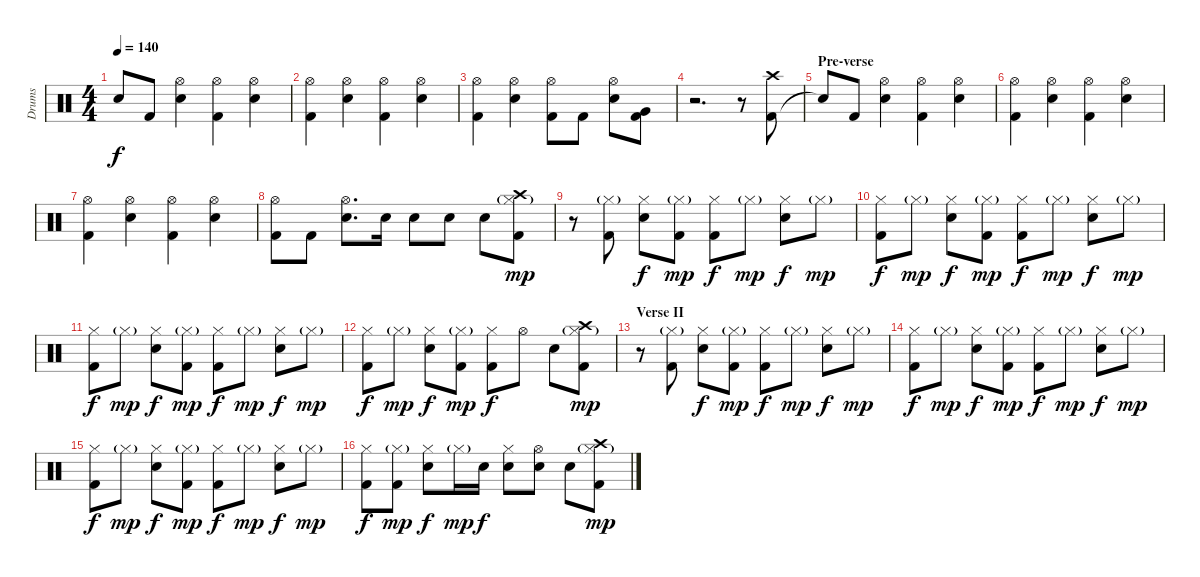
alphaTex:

\track ("Drums" "Drums") {instrument percussion}
\staff {score}
\articulation defaults
\ts (4 4)
\tempo 140
\clef neutral
\ks c "Snare (hit)"{t}.8{dy f} "Kick (hit) 2".8
("Hi-Hat (open)" "Electric Snare (hit)").4 ("Hi-Hat (open)" "Kick (hit) 2").4 ("Hi-Hat (open)" "Electric Snare (hit)").4 |
("Hi-Hat (open)" "Kick (hit) 2").4 ("Hi-Hat (open)" "Electric Snare (hit)").4 ("Hi-Hat (open)" "Kick (hit) 2").4 ("Hi-Hat (open)" "Electric Snare (hit)").4 |
("Hi-Hat (open)" "Kick (hit) 2").4 ("Hi-Hat (open)" "Electric Snare (hit)").4 ("Hi-Hat (open)" "Kick (hit) 2").8 "Kick (hit) 2".8 ("Hi-Hat (open)" "Electric Snare (hit)").8 ("Very Low Tom (hit)" "Kick (hit) 2").8 |
r.2{d} r.8 ("Kick (hit) 2" "Crash high (hit)").8 |
\section ("" "Pre-verse")
"Snare (hit)"{t}.8 "Kick (hit) 2".8 ("Hi-Hat (open)" "Electric Snare (hit)").4 ("Hi-Hat (open)" "Kick (hit) 2").4 ("Hi-Hat (open)" "Electric Snare (hit)").4 |
("Hi-Hat (open)" "Kick (hit) 2").4 ("Hi-Hat (open)" "Electric Snare (hit)").4 ("Hi-Hat (open)" "Kick (hit) 2").4 ("Hi-Hat (open)" "Electric Snare (hit)").4 |
("Hi-Hat (open)" "Kick (hit) 2").4 ("Hi-Hat (open)" "Electric Snare (hit)").4 ("Hi-Hat (open)" "Kick (hit) 2").4 ("Hi-Hat (open)" "Electric Snare (hit)").4 |
("Hi-Hat (open)" "Kick (hit) 2").8 "Kick (hit) 2".8 ("Hi-Hat (open)" "Electric Snare (hit)").8{d} "Electric Snare (hit)".16 "Electric Snare (hit)".8 "Electric Snare (hit)".8 "Electric Snare (hit)".8 ("Hi-Hat (closed)"{g} "Kick (hit) 2" "Crash high (hit)").8{dy mp} |
r.8 ("Hi-Hat (closed)"{g} "Kick (hit) 2").8 ("Hi-Hat (closed)" "Electric Snare (hit)").8{dy f} ("Hi-Hat (closed)"{g} "Kick (hit) 2").8{dy mp} ("Hi-Hat (closed)" "Kick (hit) 2").8{dy f} "Hi-Hat (closed)"{g}.8{dy mp} ("Hi-Hat (closed)" "Electric Snare (hit)").8{dy f} "Hi-Hat (closed)"{g}.8{dy mp} |
("Hi-Hat (closed)" "Kick (hit) 2").8{dy f} "Hi-Hat (closed)"{g}.8{dy mp} ("Hi-Hat (closed)" "Electric Snare (hit)").8{dy f} ("Hi-Hat (closed)"{g} "Kick (hit) 2").8{dy mp} ("Hi-Hat (closed)" "Kick (hit) 2").8{dy f} "Hi-Hat (closed)"{g}.8{dy mp} ("Hi-Hat (closed)" "Electric Snare (hit)").8{dy f} "Hi-Hat (closed)"{g}.8{dy mp} |
("Hi-Hat (closed)" "Kick (hit) 2").8{dy f} "Hi-Hat (closed)"{g}.8{dy mp} ("Hi-Hat (closed)" "Electric Snare (hit)").8{dy f} ("Hi-Hat (closed)"{g} "Kick (hit) 2").8{dy mp} ("Hi-Hat (closed)" "Kick (hit) 2").8{dy f} "Hi-Hat (closed)"{g}.8{dy mp} ("Hi-Hat (closed)" "Electric Snare (hit)").8{dy f} "Hi-Hat (closed)"{g}.8{dy mp} |
("Hi-Hat (closed)" "Kick (hit) 2").8{dy f} "Hi-Hat (closed)"{g}.8{dy mp} ("Hi-Hat (closed)" "Electric Snare (hit)").8{dy f} ("Hi-Hat (closed)"{g} "Kick (hit) 2").8{dy mp} ("Hi-Hat (closed)" "Kick (hit) 2").8{dy f} "Hi-Hat (open)".8 "Electric Snare (hit)".8 ("Hi-Hat (closed)"{g} "Kick (hit) 2" "Crash high (hit)").8{dy mp} |
\section ("" "Verse II")
r.8 ("Hi-Hat (closed)"{g} "Kick (hit) 2").8 ("Hi-Hat (closed)" "Electric Snare (hit)").8{dy f} ("Hi-Hat (closed)"{g} "Kick (hit) 2").8{dy mp} ("Hi-Hat (closed)" "Kick (hit) 2").8{dy f} "Hi-Hat (closed)"{g}.8{dy mp} ("Hi-Hat (closed)" "Electric Snare (hit)").8{dy f} "Hi-Hat (closed)"{g}.8{dy mp} |
("Hi-Hat (closed)" "Kick (hit) 2").8{dy f} "Hi-Hat (closed)"{g}.8{dy mp} ("Hi-Hat (closed)" "Electric Snare (hit)").8{dy f} ("Hi-Hat (closed)"{g} "Kick (hit) 2").8{dy mp} ("Hi-Hat (closed)" "Kick (hit) 2").8{dy f} "Hi-Hat (closed)"{g}.8{dy mp} ("Hi-Hat (closed)" "Electric Snare (hit)").8{dy f} "Hi-Hat (closed)"{g}.8{dy mp} |
("Hi-Hat (closed)" "Kick (hit) 2").8{dy f} "Hi-Hat (closed)"{g}.8{dy mp} ("Hi-Hat (closed)" "Electric Snare (hit)").8{dy f} ("Hi-Hat (closed)"{g} "Kick (hit) 2").8{dy mp} ("Hi-Hat (closed)" "Kick (hit) 2").8{dy f} "Hi-Hat (closed)"{g}.8{dy mp} ("Hi-Hat (closed)" "Electric Snare (hit)").8{dy f} "Hi-Hat (closed)"{g}.8{dy mp} |
("Hi-Hat (closed)" "Kick (hit) 2").8{dy f} ("Hi-Hat (closed)"{g} "Kick (hit) 2").8{dy mp} ("Hi-Hat (closed)" "Electric Snare (hit)").8{dy f} "Hi-Hat (closed)"{g}.16{dy mp} "Electric Snare (hit)".16{dy f} ("Hi-Hat (closed)" "Electric Snare (hit)").8 ("Hi-Hat (open)" "Electric Snare (hit)").8 "Electric Snare (hit)".8 ("Hi-Hat (closed)"{g} "Kick (hit) 2" "Crash high (hit)").8{dy mp}
